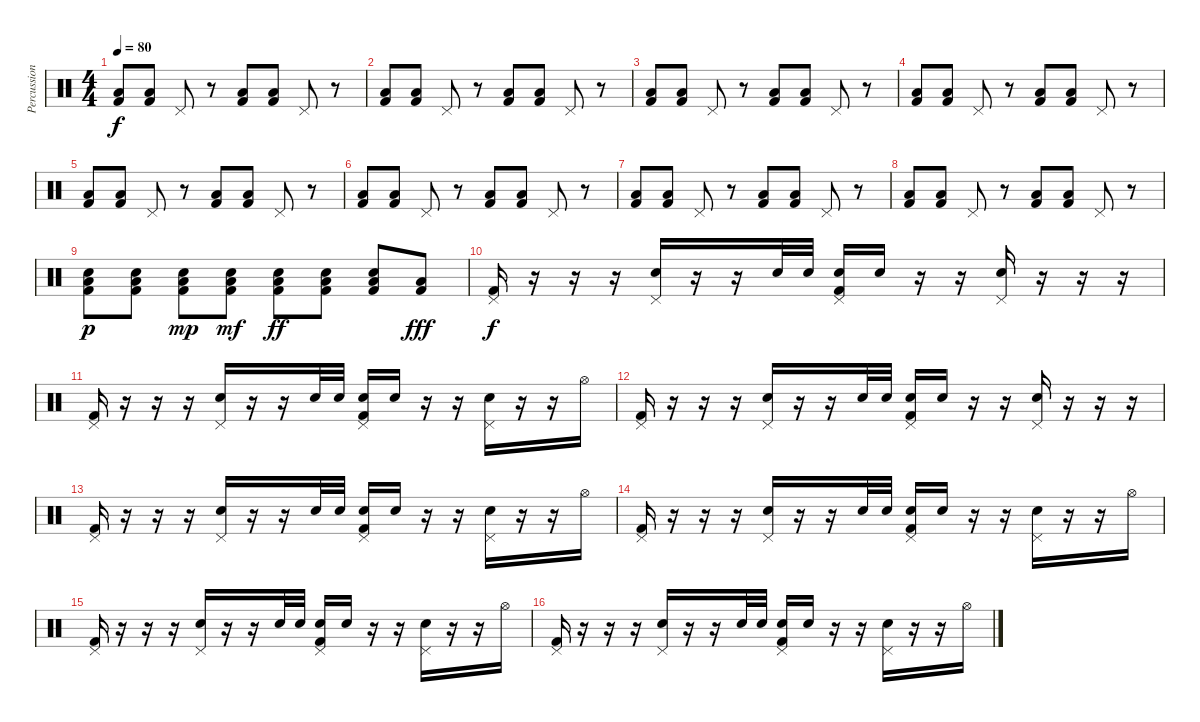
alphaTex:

\track ("Percussion" "Percussion") {instrument percussion}
\staff {score}
\articulation defaults
\ts (4 4)
\tempo 80
\clef neutral
\ks c
("Low Floor Tom (hit)" "Kick (hit) 2").8{dy f} ("Low Floor Tom (hit)" "Kick (hit) 2").8 "Pedal Hi-Hat (hit)".8 r.8 ("Low Floor Tom (hit)" "Kick (hit) 2").8 ("Low Floor Tom (hit)" "Kick (hit) 2").8 "Pedal Hi-Hat (hit)".8 r.8 |
("Low Floor Tom (hit)" "Kick (hit) 2").8 ("Low Floor Tom (hit)" "Kick (hit) 2").8 "Pedal Hi-Hat (hit)".8 r.8 ("Low Floor Tom (hit)" "Kick (hit) 2").8 ("Low Floor Tom (hit)" "Kick (hit) 2").8 "Pedal Hi-Hat (hit)".8 r.8 |
("Low Floor Tom (hit)" "Kick (hit) 2").8 ("Low Floor Tom (hit)" "Kick (hit) 2").8 "Pedal Hi-Hat (hit)".8 r.8 ("Low Floor Tom (hit)" "Kick (hit) 2").8 ("Low Floor Tom (hit)" "Kick (hit) 2").8 "Pedal Hi-Hat (hit)".8 r.8 |
("Low Floor Tom (hit)" "Kick (hit) 2").8 ("Low Floor Tom (hit)" "Kick (hit) 2").8 "Pedal Hi-Hat (hit)".8 r.8 ("Low Floor Tom (hit)" "Kick (hit) 2").8 ("Low Floor Tom (hit)" "Kick (hit) 2").8 "Pedal Hi-Hat (hit)".8 r.8 |
("Low Floor Tom (hit)" "Kick (hit) 2").8 ("Low Floor Tom (hit)" "Kick (hit) 2").8 "Pedal Hi-Hat (hit)".8 r.8 ("Low Floor Tom (hit)" "Kick (hit) 2").8 ("Low Floor Tom (hit)" "Kick (hit) 2").8 "Pedal Hi-Hat (hit)".8 r.8 |
("Low Floor Tom (hit)" "Kick (hit) 2").8 ("Low Floor Tom (hit)" "Kick (hit) 2").8 "Pedal Hi-Hat (hit)".8 r.8 ("Low Floor Tom (hit)" "Kick (hit) 2").8 ("Low Floor Tom (hit)" "Kick (hit) 2").8 "Pedal Hi-Hat (hit)".8 r.8 |
("Low Floor Tom (hit)" "Kick (hit) 2").8 ("Low Floor Tom (hit)" "Kick (hit) 2").8 "Pedal Hi-Hat (hit)".8 r.8 ("Low Floor Tom (hit)" "Kick (hit) 2").8 ("Low Floor Tom (hit)" "Kick (hit) 2").8 "Pedal Hi-Hat (hit)".8 r.8 |
("Low Floor Tom (hit)" "Kick (hit) 2").8 ("Low Floor Tom (hit)" "Kick (hit) 2").8 "Pedal Hi-Hat (hit)".8 r.8 ("Low Floor Tom (hit)" "Kick (hit) 2").8 ("Low Floor Tom (hit)" "Kick (hit) 2").8 "Pedal Hi-Hat (hit)".8 r.8 |
("Low Floor Tom (hit)" "Snare (hit) 2" "Kick (hit) 2").8{dy p volume 13} ("Low Floor Tom (hit)" "Snare (hit) 2" "Kick (hit) 2").8 ("Low Floor Tom (hit)" "Snare (hit) 2" "Kick (hit) 2").8{dy mp} ("Low Floor Tom (hit)" "Snare (hit) 2" "Kick (hit) 2").8{dy mf} ("Low Floor Tom (hit)" "Snare (hit) 2" "Kick (hit) 2").8{dy ff} ("Low Floor Tom (hit)" "Snare (hit) 2" "Kick (hit) 2").8 ("Low Floor Tom (hit)" "Snare (hit) 2" "Kick (hit) 2").8 ("Low Floor Tom (hit)" "Kick (hit) 2").8{dy fff} |
("Pedal Hi-Hat (hit)" "Kick (hit) 2").16{dy f} r.16 r.16 r.16 ("Pedal Hi-Hat (hit)" "Snare (hit) 2").16 r.16 r.16 "Snare (hit) 2".32 "Snare (hit) 2".32 ("Pedal Hi-Hat (hit)" "Snare (hit) 2" "Kick (hit) 2").16 "Snare (hit) 2".16 r.16 r.16 ("Pedal Hi-Hat (hit)" "Snare (hit) 2").16 r.16 r.16 r.16 |
("Pedal Hi-Hat (hit)" "Kick (hit) 2").16 r.16 r.16 r.16 ("Pedal Hi-Hat (hit)" "Snare (hit) 2").16 r.16 r.16 "Snare (hit) 2".32 "Snare (hit) 2".32 ("Pedal Hi-Hat (hit)" "Snare (hit) 2" "Kick (hit) 2").16 "Snare (hit) 2".16 r.16 r.16 ("Pedal Hi-Hat (hit)" "Snare (hit) 2").16 r.16 r.16 "Hi-Hat (open)".16 |
("Pedal Hi-Hat (hit)" "Kick (hit) 2").16 r.16 r.16 r.16 ("Pedal Hi-Hat (hit)" "Snare (hit) 2").16 r.16 r.16 "Snare (hit) 2".32 "Snare (hit) 2".32 ("Pedal Hi-Hat (hit)" "Snare (hit) 2" "Kick (hit) 2").16 "Snare (hit) 2".16 r.16 r.16 ("Pedal Hi-Hat (hit)" "Snare (hit) 2").16 r.16 r.16 r.16 |
("Pedal Hi-Hat (hit)" "Kick (hit) 2").16 r.16 r.16 r.16 ("Pedal Hi-Hat (hit)" "Snare (hit) 2").16 r.16 r.16 "Snare (hit) 2".32 "Snare (hit) 2".32 ("Pedal Hi-Hat (hit)" "Snare (hit) 2" "Kick (hit) 2").16 "Snare (hit) 2".16 r.16 r.16 ("Pedal Hi-Hat (hit)" "Snare (hit) 2").16 r.16 r.16 "Hi-Hat (open)".16 |
("Pedal Hi-Hat (hit)" "Kick (hit) 2").16 r.16 r.16 r.16 ("Pedal Hi-Hat (hit)" "Snare (hit) 2").16 r.16 r.16 "Snare (hit) 2".32 "Snare (hit) 2".32 ("Pedal Hi-Hat (hit)" "Snare (hit) 2" "Kick (hit) 2").16 "Snare (hit) 2".16 r.16 r.16 ("Pedal Hi-Hat (hit)" "Snare (hit) 2").16 r.16 r.16 "Hi-Hat (open)".16 |
("Pedal Hi-Hat (hit)" "Kick (hit) 2").16 r.16 r.16 r.16 ("Pedal Hi-Hat (hit)" "Snare (hit) 2").16 r.16 r.16 "Snare (hit) 2".32 "Snare (hit) 2".32 ("Pedal Hi-Hat (hit)" "Snare (hit) 2" "Kick (hit) 2").16 "Snare (hit) 2".16 r.16 r.16 ("Pedal Hi-Hat (hit)" "Snare (hit) 2").16 r.16 r.16 "Hi-Hat (open)".16 |
("Pedal Hi-Hat (hit)" "Kick (hit) 2").16 r.16 r.16 r.16 ("Pedal Hi-Hat (hit)" "Snare (hit) 2").16 r.16 r.16 "Snare (hit) 2".32 "Snare (hit) 2".32 ("Pedal Hi-Hat (hit)" "Snare (hit) 2" "Kick (hit) 2").16 "Snare (hit) 2".16 r.16 r.16 ("Pedal Hi-Hat (hit)" "Snare (hit) 2").16 r.16 r.16 "Hi-Hat (open)".16
